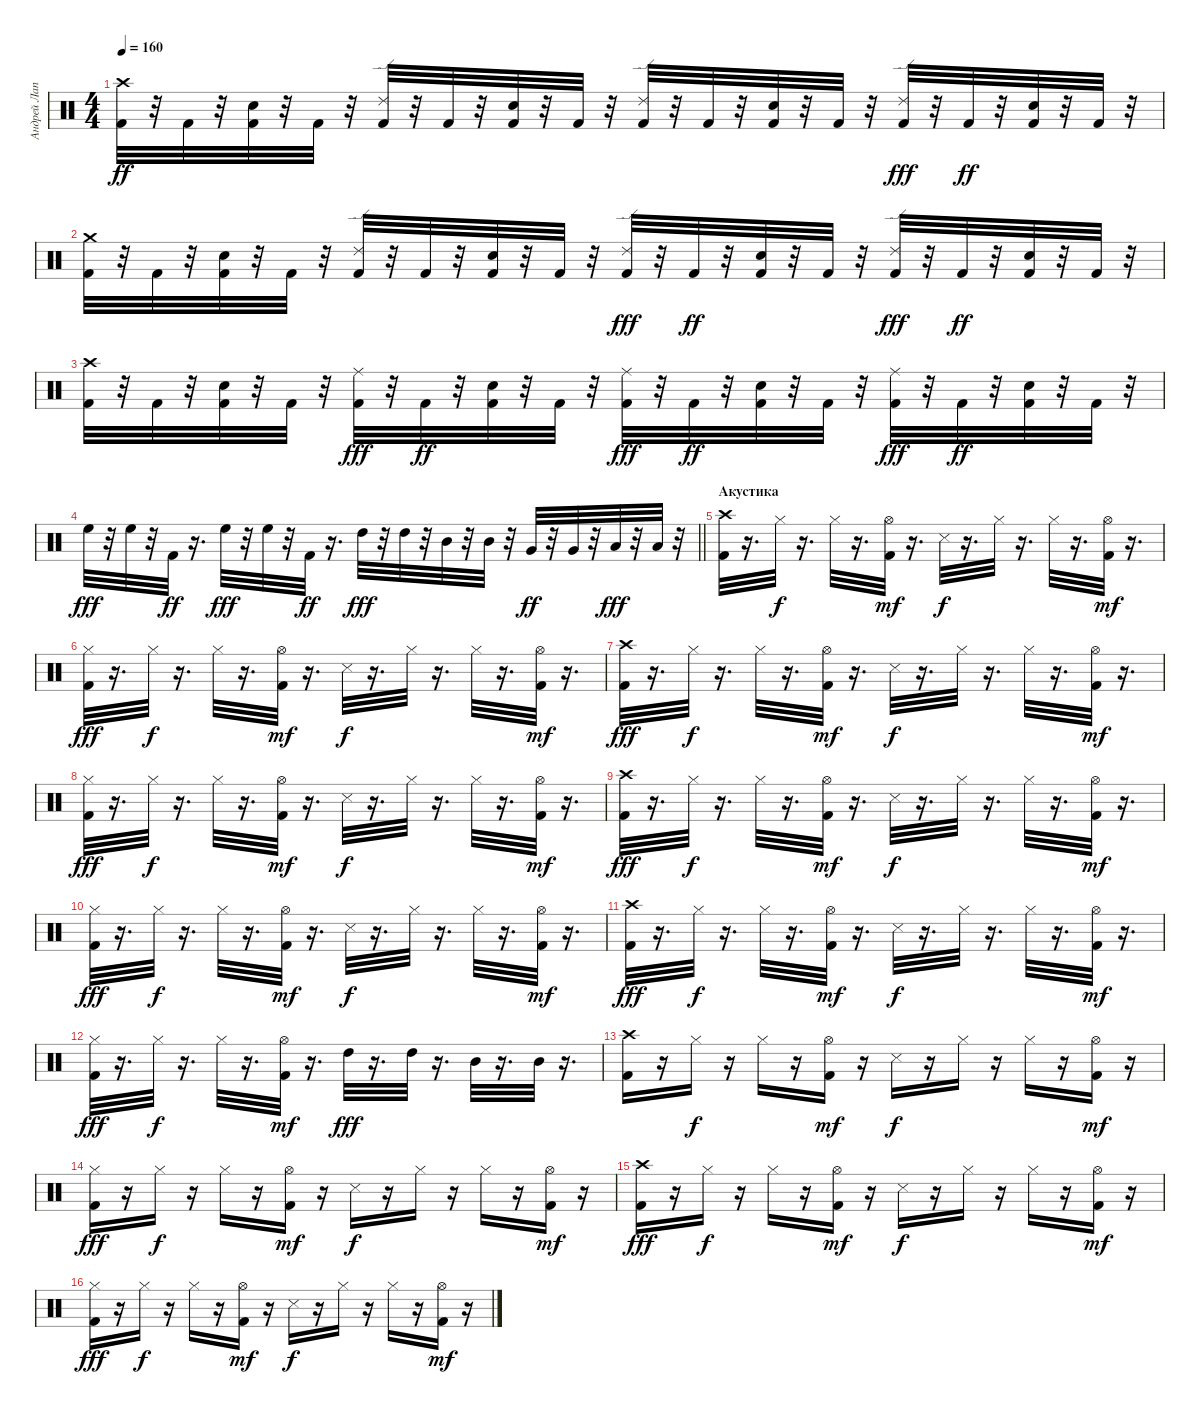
\track ("Андрей Лаптев" "Андрей Лап") {instrument percussion}
\staff {score}
\articulation defaults
\ts (4 4)
\tempo 160
\clef neutral
\ks c
("Crash high (hit)" "Kick (hit) 2").32{dy ff} r.32 "Kick (hit) 2".32 r.32 ("Electric Snare (hit)" "Kick (hit) 2").32 r.32 "Kick (hit) 2".32 r.32 ("Ride (edge) 2" "Kick (hit) 2").32 r.32 "Kick (hit) 2".32 r.32 ("Kick (hit) 2" "Electric Snare (hit)").32 r.32 "Kick (hit) 2".32 r.32 ("Ride (edge) 2" "Kick (hit) 2").32 r.32 "Kick (hit) 2".32 r.32 ("Electric Snare (hit)" "Kick (hit) 2").32 r.32 "Kick (hit) 2".32 r.32 ("Kick (hit) 2" "Ride (edge) 2").32{dy fff} r.32 "Kick (hit) 2".32{dy ff} r.32 ("Electric Snare (hit)" "Kick (hit) 2").32 r.32 "Kick (hit) 2".32 r.32 |
("Crash medium (hit)" "Kick (hit) 2").32 r.32 "Kick (hit) 2".32 r.32 ("Electric Snare (hit)" "Kick (hit) 2").32 r.32 "Kick (hit) 2".32 r.32 ("Ride (edge) 2" "Kick (hit) 2").32 r.32 "Kick (hit) 2".32 r.32 ("Kick (hit) 2" "Electric Snare (hit)").32 r.32 "Kick (hit) 2".32 r.32 ("Kick (hit) 2" "Ride (edge) 2").32{dy fff} r.32 "Kick (hit) 2".32{dy ff} r.32 ("Kick (hit) 2" "Electric Snare (hit)").32 r.32 "Kick (hit) 2".32 r.32 ("Kick (hit) 2" "Ride (edge) 2").32{dy fff} r.32 "Kick (hit) 2".32{dy ff} r.32 ("Kick (hit) 2" "Electric Snare (hit)").32 r.32 "Kick (hit) 2".32 r.32 |
("Crash high (hit)" "Kick (hit) 2").32 r.32 "Kick (hit) 2".32 r.32 ("Kick (hit) 2" "Electric Snare (hit)").32 r.32 "Kick (hit) 2".32 r.32 ("Kick (hit) 2" "Ride (middle)").32{dy fff} r.32 "Kick (hit) 2".32{dy ff} r.32 ("Kick (hit) 2" "Electric Snare (hit)").32 r.32 "Kick (hit) 2".32 r.32 ("Kick (hit) 2" "Ride (middle)").32{dy fff} r.32 "Kick (hit) 2".32{dy ff} r.32 ("Electric Snare (hit)" "Kick (hit) 2").32 r.32 "Kick (hit) 2".32 r.32 ("Kick (hit) 2" "Ride (middle)").32{dy fff} r.32 "Kick (hit) 2".32{dy ff} r.32 ("Kick (hit) 2" "Electric Snare (hit)").32 r.32 "Kick (hit) 2".32 r.32 |
\barLineRight lightlight "High Floor Tom (hit)".32{dy fff}
r.32 "High Floor Tom (hit)".32 r.32 "Kick (hit) 2".32{dy ff} r.16{d} "High Floor Tom (hit)".32{dy fff} r.32 "High Floor Tom (hit)".32 r.32 "Kick (hit) 2".32{dy ff} r.16{d} "High Tom (hit)".32{dy fff} r.32 "High Tom (hit)".32 r.32 "Mid Tom (hit)".32 r.32 "Mid Tom (hit)".32 r.32 "Very Low Tom (hit)".32{dy ff} r.32 "Very Low Tom (hit)".32 r.32 "Low Tom (hit)".32{dy fff} r.32 "Low Tom (hit)".32 r.32 |
\section ("" "Акустика")
("Crash high (hit)" "Kick (hit) 2").32 r.16{d} "Hi-Hat (closed)".32{dy f} r.16{d} "Hi-Hat (closed)".32 r.16{d} ("Kick (hit) 2" "Hi-Hat (open)").32{dy mf} r.16{d} "Snare (side stick) 3".32{dy f} r.16{d} "Hi-Hat (closed)".32 r.16{d} "Hi-Hat (closed)".32 r.16{d} ("Hi-Hat (open)" "Kick (hit) 2").32{dy mf} r.16{d} |
("Kick (hit) 2" "Hi-Hat (closed)").32{dy fff} r.16{d} "Hi-Hat (closed)".32{dy f} r.16{d} "Hi-Hat (closed)".32 r.16{d} ("Hi-Hat (open)" "Kick (hit) 2").32{dy mf} r.16{d} "Snare (side stick) 3".32{dy f} r.16{d} "Hi-Hat (closed)".32 r.16{d} "Hi-Hat (closed)".32 r.16{d} ("Kick (hit) 2" "Hi-Hat (open)").32{dy mf} r.16{d} |
("Kick (hit) 2" "Crash high (hit)").32{dy fff} r.16{d} "Hi-Hat (closed)".32{dy f} r.16{d} "Hi-Hat (closed)".32 r.16{d} ("Kick (hit) 2" "Hi-Hat (open)").32{dy mf} r.16{d} "Snare (side stick) 3".32{dy f} r.16{d} "Hi-Hat (closed)".32 r.16{d} "Hi-Hat (closed)".32 r.16{d} ("Kick (hit) 2" "Hi-Hat (open)").32{dy mf} r.16{d} |
("Kick (hit) 2" "Hi-Hat (closed)").32{dy fff} r.16{d} "Hi-Hat (closed)".32{dy f} r.16{d} "Hi-Hat (closed)".32 r.16{d} ("Hi-Hat (open)" "Kick (hit) 2").32{dy mf} r.16{d} "Snare (side stick) 3".32{dy f} r.16{d} "Hi-Hat (closed)".32 r.16{d} "Hi-Hat (closed)".32 r.16{d} ("Hi-Hat (open)" "Kick (hit) 2").32{dy mf} r.16{d} |
("Kick (hit) 2" "Crash high (hit)").32{dy fff} r.16{d} "Hi-Hat (closed)".32{dy f} r.16{d} "Hi-Hat (closed)".32 r.16{d} ("Hi-Hat (open)" "Kick (hit) 2").32{dy mf} r.16{d} "Snare (side stick) 3".32{dy f} r.16{d} "Hi-Hat (closed)".32 r.16{d} "Hi-Hat (closed)".32 r.16{d} ("Hi-Hat (open)" "Kick (hit) 2").32{dy mf} r.16{d} |
("Hi-Hat (closed)" "Kick (hit) 2").32{dy fff} r.16{d} "Hi-Hat (closed)".32{dy f} r.16{d} "Hi-Hat (closed)".32 r.16{d} ("Hi-Hat (open)" "Kick (hit) 2").32{dy mf} r.16{d} "Snare (side stick) 3".32{dy f} r.16{d} "Hi-Hat (closed)".32 r.16{d} "Hi-Hat (closed)".32 r.16{d} ("Kick (hit) 2" "Hi-Hat (open)").32{dy mf} r.16{d} |
("Kick (hit) 2" "Crash high (hit)").32{dy fff} r.16{d} "Hi-Hat (closed)".32{dy f} r.16{d} "Hi-Hat (closed)".32 r.16{d} ("Hi-Hat (open)" "Kick (hit) 2").32{dy mf} r.16{d} "Snare (side stick) 3".32{dy f} r.16{d} "Hi-Hat (closed)".32 r.16{d} "Hi-Hat (closed)".32 r.16{d} ("Kick (hit) 2" "Hi-Hat (open)").32{dy mf} r.16{d} |
("Hi-Hat (closed)" "Kick (hit) 2").32{dy fff} r.16{d} "Hi-Hat (closed)".32{dy f} r.16{d} "Hi-Hat (closed)".32 r.16{d} ("Kick (hit) 2" "Hi-Hat (open)").32{dy mf} r.16{d} "High Tom (hit)".32{dy fff} r.16{d} "High Tom (hit)".32 r.16{d} "Mid Tom (hit)".32 r.16{d} "Mid Tom (hit)".32 r.16{d} |
("Kick (hit) 2" "Crash high (hit)").16 r.16 "Hi-Hat (closed)".16{dy f} r.16 "Hi-Hat (closed)".16 r.16 ("Hi-Hat (open)" "Kick (hit) 2").16{dy mf} r.16 "Snare (side stick) 3".16{dy f} r.16 "Hi-Hat (closed)".16 r.16 "Hi-Hat (closed)".16 r.16 ("Hi-Hat (open)" "Kick (hit) 2").16{dy mf} r.16 |
("Kick (hit) 2" "Hi-Hat (closed)").16{dy fff} r.16 "Hi-Hat (closed)".16{dy f} r.16 "Hi-Hat (closed)".16 r.16 ("Hi-Hat (open)" "Kick (hit) 2").16{dy mf} r.16 "Snare (side stick) 3".16{dy f} r.16 "Hi-Hat (closed)".16 r.16 "Hi-Hat (closed)".16 r.16 ("Hi-Hat (open)" "Kick (hit) 2").16{dy mf} r.16 |
("Crash high (hit)" "Kick (hit) 2").16{dy fff} r.16 "Hi-Hat (closed)".16{dy f} r.16 "Hi-Hat (closed)".16 r.16 ("Kick (hit) 2" "Hi-Hat (open)").16{dy mf} r.16 "Snare (side stick) 3".16{dy f} r.16 "Hi-Hat (closed)".16 r.16 "Hi-Hat (closed)".16 r.16 ("Kick (hit) 2" "Hi-Hat (open)").16{dy mf} r.16 |
("Kick (hit) 2" "Hi-Hat (closed)").16{dy fff} r.16 "Hi-Hat (closed)".16{dy f} r.16 "Hi-Hat (closed)".16 r.16 ("Kick (hit) 2" "Hi-Hat (open)").16{dy mf} r.16 "Snare (side stick) 3".16{dy f} r.16 "Hi-Hat (closed)".16 r.16 "Hi-Hat (closed)".16 r.16 ("Hi-Hat (open)" "Kick (hit) 2").16{dy mf} r.16
